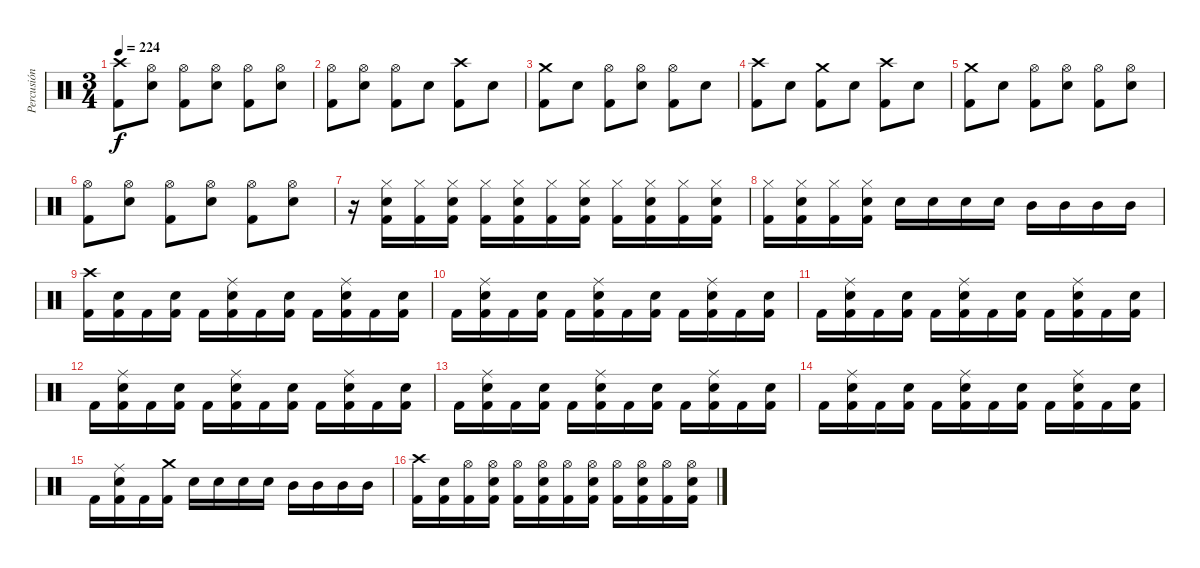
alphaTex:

\track ("Percusión" "Percusión") {instrument percussion}
\staff {score}
\articulation defaults
\ts (3 4)
\tempo 224
\clef neutral
\ks c
("Crash high (hit)" "Kick (hit) 2").8{dy f} ("Hi-Hat (open)" "Electric Snare (hit)").8 ("Hi-Hat (open)" "Kick (hit) 2").8 ("Hi-Hat (open)" "Electric Snare (hit)").8 ("Hi-Hat (open)" "Kick (hit) 2").8 ("Hi-Hat (open)" "Electric Snare (hit)").8 |
("Hi-Hat (open)" "Kick (hit) 2").8 ("Hi-Hat (open)" "Electric Snare (hit)").8 ("Hi-Hat (open)" "Kick (hit) 2").8 "Electric Snare (hit)".8 ("Crash high (hit)" "Kick (hit) 2").8 "Electric Snare (hit)".8 |
("Crash medium (hit)" "Kick (hit) 2").8 "Electric Snare (hit)".8 ("Hi-Hat (open)" "Kick (hit) 2").8 ("Hi-Hat (open)" "Electric Snare (hit)").8 ("Hi-Hat (open)" "Kick (hit) 2").8 "Electric Snare (hit)".8 |
("Crash high (hit)" "Kick (hit) 2").8 "Electric Snare (hit)".8 ("Crash medium (hit)" "Kick (hit) 2").8 "Electric Snare (hit)".8 ("Crash high (hit)" "Kick (hit) 2").8 "Electric Snare (hit)".8 |
("Crash medium (hit)" "Kick (hit) 2").8 "Electric Snare (hit)".8 ("Hi-Hat (open)" "Kick (hit) 2").8 ("Hi-Hat (open)" "Electric Snare (hit)").8 ("Hi-Hat (open)" "Kick (hit) 2").8 ("Hi-Hat (open)" "Electric Snare (hit)").8 |
("Hi-Hat (open)" "Kick (hit) 2").8 ("Hi-Hat (open)" "Electric Snare (hit)").8 ("Hi-Hat (open)" "Kick (hit) 2").8 ("Hi-Hat (open)" "Electric Snare (hit)").8 ("Hi-Hat (open)" "Kick (hit) 2").8 ("Hi-Hat (open)" "Electric Snare (hit)").8 |
r.16 ("Hi-Hat (closed)" "Electric Snare (hit)" "Kick (hit) 2").16 ("Hi-Hat (closed)" "Kick (hit) 2").16 ("Hi-Hat (closed)" "Electric Snare (hit)" "Kick (hit) 2").16 ("Hi-Hat (closed)" "Kick (hit) 2").16 ("Hi-Hat (closed)" "Electric Snare (hit)" "Kick (hit) 2").16 ("Hi-Hat (closed)" "Kick (hit) 2").16 ("Hi-Hat (closed)" "Electric Snare (hit)" "Kick (hit) 2").16 ("Hi-Hat (closed)" "Kick (hit) 2").16 ("Hi-Hat (closed)" "Electric Snare (hit)" "Kick (hit) 2").16 ("Hi-Hat (closed)" "Kick (hit) 2").16 ("Hi-Hat (closed)" "Electric Snare (hit)" "Kick (hit) 2").16 |
("Hi-Hat (closed)" "Kick (hit) 2").16 ("Hi-Hat (closed)" "Electric Snare (hit)" "Kick (hit) 2").16 ("Hi-Hat (closed)" "Kick (hit) 2").16 ("Hi-Hat (closed)" "Electric Snare (hit)" "Kick (hit) 2").16 "Electric Snare (hit)".16 "Electric Snare (hit)".16 "Electric Snare (hit)".16 "Electric Snare (hit)".16 "Mid Tom (hit)".16 "Mid Tom (hit)".16 "Mid Tom (hit)".16 "Mid Tom (hit)".16 |
("Crash high (hit)" "Kick (hit) 2").16 ("Electric Snare (hit)" "Kick (hit) 2").16 "Kick (hit) 2".16 ("Electric Snare (hit)" "Kick (hit) 2").16 "Kick (hit) 2".16 ("Ride (middle)" "Electric Snare (hit)" "Kick (hit) 2").16 "Kick (hit) 2".16 ("Electric Snare (hit)" "Kick (hit) 2").16 "Kick (hit) 2".16 ("Ride (middle)" "Electric Snare (hit)" "Kick (hit) 2").16 "Kick (hit) 2".16 ("Electric Snare (hit)" "Kick (hit) 2").16 |
"Kick (hit) 2".16 ("Ride (middle)" "Electric Snare (hit)" "Kick (hit) 2").16 "Kick (hit) 2".16 ("Electric Snare (hit)" "Kick (hit) 2").16 "Kick (hit) 2".16 ("Ride (middle)" "Electric Snare (hit)" "Kick (hit) 2").16 "Kick (hit) 2".16 ("Electric Snare (hit)" "Kick (hit) 2").16 "Kick (hit) 2".16 ("Ride (middle)" "Electric Snare (hit)" "Kick (hit) 2").16 "Kick (hit) 2".16 ("Electric Snare (hit)" "Kick (hit) 2").16 |
"Kick (hit) 2".16 ("Ride (middle)" "Electric Snare (hit)" "Kick (hit) 2").16 "Kick (hit) 2".16 ("Electric Snare (hit)" "Kick (hit) 2").16 "Kick (hit) 2".16 ("Ride (middle)" "Electric Snare (hit)" "Kick (hit) 2").16 "Kick (hit) 2".16 ("Electric Snare (hit)" "Kick (hit) 2").16 "Kick (hit) 2".16 ("Ride (middle)" "Electric Snare (hit)" "Kick (hit) 2").16 "Kick (hit) 2".16 ("Electric Snare (hit)" "Kick (hit) 2").16 |
"Kick (hit) 2".16 ("Ride (middle)" "Electric Snare (hit)" "Kick (hit) 2").16 "Kick (hit) 2".16 ("Electric Snare (hit)" "Kick (hit) 2").16 "Kick (hit) 2".16 ("Ride (middle)" "Electric Snare (hit)" "Kick (hit) 2").16 "Kick (hit) 2".16 ("Electric Snare (hit)" "Kick (hit) 2").16 "Kick (hit) 2".16 ("Ride (middle)" "Electric Snare (hit)" "Kick (hit) 2").16 "Kick (hit) 2".16 ("Electric Snare (hit)" "Kick (hit) 2").16 |
"Kick (hit) 2".16 ("Ride (middle)" "Electric Snare (hit)" "Kick (hit) 2").16 "Kick (hit) 2".16 ("Electric Snare (hit)" "Kick (hit) 2").16 "Kick (hit) 2".16 ("Ride (middle)" "Electric Snare (hit)" "Kick (hit) 2").16 "Kick (hit) 2".16 ("Electric Snare (hit)" "Kick (hit) 2").16 "Kick (hit) 2".16 ("Ride (middle)" "Electric Snare (hit)" "Kick (hit) 2").16 "Kick (hit) 2".16 ("Electric Snare (hit)" "Kick (hit) 2").16 |
"Kick (hit) 2".16 ("Ride (middle)" "Electric Snare (hit)" "Kick (hit) 2").16 "Kick (hit) 2".16 ("Electric Snare (hit)" "Kick (hit) 2").16 "Kick (hit) 2".16 ("Ride (middle)" "Electric Snare (hit)" "Kick (hit) 2").16 "Kick (hit) 2".16 ("Electric Snare (hit)" "Kick (hit) 2").16 "Kick (hit) 2".16 ("Ride (middle)" "Electric Snare (hit)" "Kick (hit) 2").16 "Kick (hit) 2".16 ("Electric Snare (hit)" "Kick (hit) 2").16 |
"Kick (hit) 2".16 ("Ride (middle)" "Electric Snare (hit)" "Kick (hit) 2").16 "Kick (hit) 2".16 ("Crash medium (hit)" "Kick (hit) 2").16 "Electric Snare (hit)".16 "Electric Snare (hit)".16 "Electric Snare (hit)".16 "Electric Snare (hit)".16 "Mid Tom (hit)".16 "Mid Tom (hit)".16 "Mid Tom (hit)".16 "Mid Tom (hit)".16 |
("Crash high (hit)" "Kick (hit) 2").16 ("Electric Snare (hit)" "Kick (hit) 2").16 ("Hi-Hat (open)" "Kick (hit) 2").16 ("Hi-Hat (open)" "Electric Snare (hit)" "Kick (hit) 2").16 ("Hi-Hat (open)" "Kick (hit) 2").16 ("Hi-Hat (open)" "Electric Snare (hit)" "Kick (hit) 2").16 ("Hi-Hat (open)" "Kick (hit) 2").16 ("Hi-Hat (open)" "Electric Snare (hit)" "Kick (hit) 2").16 ("Hi-Hat (open)" "Kick (hit) 2").16 ("Hi-Hat (open)" "Electric Snare (hit)" "Kick (hit) 2").16 ("Hi-Hat (open)" "Kick (hit) 2").16 ("Hi-Hat (open)" "Electric Snare (hit)" "Kick (hit) 2").16
